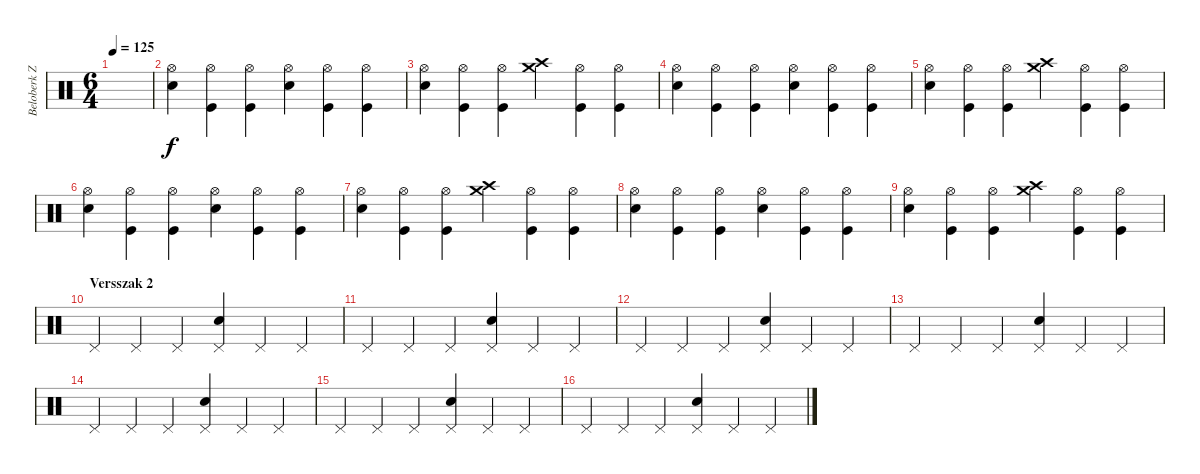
\track ("Beloberk Zsolt" "Beloberk Z") {instrument percussion}
\staff {score}
\articulation defaults
\ts (6 4)
\tempo 125
\clef neutral
\ks c
|
("Hi-Hat (open)" "Snare (hit) 2").4 ("Hi-Hat (open)" "Kick (hit)").4 ("Hi-Hat (open)" "Kick (hit)").4 ("Hi-Hat (open)" "Snare (hit) 2").4 ("Hi-Hat (open)" "Kick (hit)").4 ("Hi-Hat (open)" "Kick (hit)").4 |
("Hi-Hat (open)" "Snare (hit) 2").4 ("Hi-Hat (open)" "Kick (hit)").4 ("Hi-Hat (open)" "Kick (hit)").4 ("Crash medium (hit)" "Crash high (hit)").4 ("Hi-Hat (open)" "Kick (hit)").4 ("Hi-Hat (open)" "Kick (hit)").4 |
("Hi-Hat (open)" "Snare (hit) 2").4 ("Hi-Hat (open)" "Kick (hit)").4 ("Hi-Hat (open)" "Kick (hit)").4 ("Hi-Hat (open)" "Snare (hit) 2").4 ("Hi-Hat (open)" "Kick (hit)").4 ("Hi-Hat (open)" "Kick (hit)").4 |
("Hi-Hat (open)" "Snare (hit) 2").4 ("Hi-Hat (open)" "Kick (hit)").4 ("Hi-Hat (open)" "Kick (hit)").4 ("Crash medium (hit)" "Crash high (hit)").4 ("Hi-Hat (open)" "Kick (hit)").4 ("Hi-Hat (open)" "Kick (hit)").4 |
("Hi-Hat (open)" "Snare (hit) 2").4 ("Hi-Hat (open)" "Kick (hit)").4 ("Hi-Hat (open)" "Kick (hit)").4 ("Hi-Hat (open)" "Snare (hit) 2").4 ("Hi-Hat (open)" "Kick (hit)").4 ("Hi-Hat (open)" "Kick (hit)").4 |
("Hi-Hat (open)" "Snare (hit) 2").4 ("Hi-Hat (open)" "Kick (hit)").4 ("Hi-Hat (open)" "Kick (hit)").4 ("Crash medium (hit)" "Crash high (hit)").4 ("Hi-Hat (open)" "Kick (hit)").4 ("Hi-Hat (open)" "Kick (hit)").4 |
("Hi-Hat (open)" "Snare (hit) 2").4 ("Hi-Hat (open)" "Kick (hit)").4 ("Hi-Hat (open)" "Kick (hit)").4 ("Hi-Hat (open)" "Snare (hit) 2").4 ("Hi-Hat (open)" "Kick (hit)").4 ("Hi-Hat (open)" "Kick (hit)").4 |
("Hi-Hat (open)" "Snare (hit) 2").4 ("Hi-Hat (open)" "Kick (hit)").4 ("Hi-Hat (open)" "Kick (hit)").4 ("Crash medium (hit)" "Crash high (hit)").4 ("Hi-Hat (open)" "Kick (hit)").4 ("Hi-Hat (open)" "Kick (hit)").4 |
\section ("" "Versszak 2")
"Pedal Hi-Hat (hit)".4 "Pedal Hi-Hat (hit)".4 "Pedal Hi-Hat (hit)".4 ("Pedal Hi-Hat (hit)" "Snare (hit) 2").4 "Pedal Hi-Hat (hit)".4 "Pedal Hi-Hat (hit)".4 |
"Pedal Hi-Hat (hit)".4 "Pedal Hi-Hat (hit)".4 "Pedal Hi-Hat (hit)".4 ("Pedal Hi-Hat (hit)" "Snare (hit) 2").4 "Pedal Hi-Hat (hit)".4 "Pedal Hi-Hat (hit)".4 |
"Pedal Hi-Hat (hit)".4 "Pedal Hi-Hat (hit)".4 "Pedal Hi-Hat (hit)".4 ("Pedal Hi-Hat (hit)" "Snare (hit) 2").4 "Pedal Hi-Hat (hit)".4 "Pedal Hi-Hat (hit)".4 |
"Pedal Hi-Hat (hit)".4 "Pedal Hi-Hat (hit)".4 "Pedal Hi-Hat (hit)".4 ("Pedal Hi-Hat (hit)" "Snare (hit) 2").4 "Pedal Hi-Hat (hit)".4 "Pedal Hi-Hat (hit)".4 |
"Pedal Hi-Hat (hit)".4 "Pedal Hi-Hat (hit)".4 "Pedal Hi-Hat (hit)".4 ("Pedal Hi-Hat (hit)" "Snare (hit) 2").4 "Pedal Hi-Hat (hit)".4 "Pedal Hi-Hat (hit)".4 |
"Pedal Hi-Hat (hit)".4 "Pedal Hi-Hat (hit)".4 "Pedal Hi-Hat (hit)".4 ("Pedal Hi-Hat (hit)" "Snare (hit) 2").4 "Pedal Hi-Hat (hit)".4 "Pedal Hi-Hat (hit)".4 |
"Pedal Hi-Hat (hit)".4 "Pedal Hi-Hat (hit)".4 "Pedal Hi-Hat (hit)".4 ("Pedal Hi-Hat (hit)" "Snare (hit) 2").4 "Pedal Hi-Hat (hit)".4 "Pedal Hi-Hat (hit)".4
